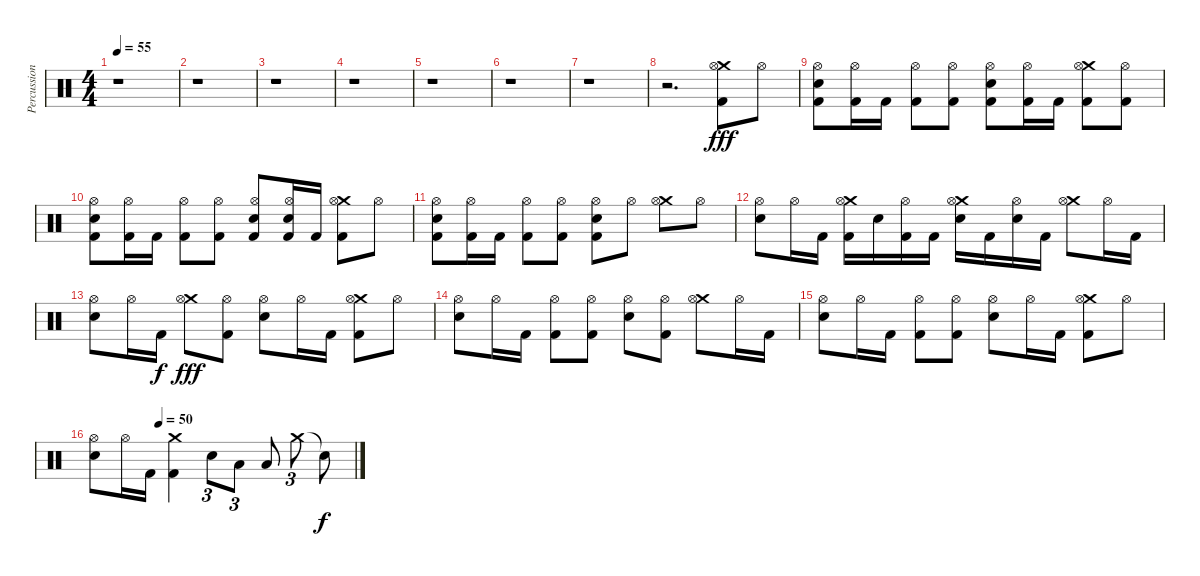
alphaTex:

\track ("Percussion" "Percussion") {instrument percussion}
\staff {score}
\articulation defaults
\ts (4 4)
\tempo 55
\clef neutral
\ks c
r.1{dy fff} |
r.1 |
r.1 |
r.1 |
r.1 |
r.1 |
r.1 |
r.2{d} ("Crash medium (hit)" "Kick (hit) 2" "Hi-Hat (open)").8 "Hi-Hat (open)".8 |
("Snare (hit) 2" "Hi-Hat (open)" "Kick (hit) 2").8 ("Hi-Hat (open)" "Kick (hit) 2").16 "Kick (hit) 2".16 ("Hi-Hat (open)" "Kick (hit) 2").8 ("Hi-Hat (open)" "Kick (hit) 2").8 ("Snare (hit) 2" "Hi-Hat (open)" "Kick (hit) 2").8 ("Hi-Hat (open)" "Kick (hit) 2").16 "Kick (hit) 2".16 ("Crash medium (hit)" "Hi-Hat (open)" "Kick (hit) 2").8 ("Hi-Hat (open)" "Kick (hit) 2").8 |
("Snare (hit) 2" "Hi-Hat (open)" "Kick (hit) 2").8 ("Hi-Hat (open)" "Kick (hit) 2").16 "Kick (hit) 2".16 ("Hi-Hat (open)" "Kick (hit) 2").8 ("Hi-Hat (open)" "Kick (hit) 2").8 ("Snare (hit) 2" "Hi-Hat (open)" "Kick (hit) 2").8 ("Snare (hit) 2" "Hi-Hat (open)" "Kick (hit) 2").16 "Kick (hit) 2".16 ("Crash medium (hit)" "Kick (hit) 2" "Hi-Hat (open)").8 "Hi-Hat (open)".8 |
("Snare (hit) 2" "Kick (hit) 2" "Hi-Hat (open)").8 ("Kick (hit) 2" "Hi-Hat (open)").16 "Kick (hit) 2".16 ("Kick (hit) 2" "Hi-Hat (open)").8 ("Kick (hit) 2" "Hi-Hat (open)").8 ("Snare (hit) 2" "Kick (hit) 2" "Hi-Hat (open)").8 "Hi-Hat (open)".8 ("Crash medium (hit)" "Hi-Hat (open)").8 "Hi-Hat (open)".8 |
("Snare (hit) 2" "Hi-Hat (open)").8 "Hi-Hat (open)".16 "Kick (hit) 2".16 ("Crash medium (hit)" "Kick (hit) 2" "Hi-Hat (open)").16 "Snare (hit) 2".16 ("Kick (hit) 2" "Hi-Hat (open)").16 "Kick (hit) 2".16 ("Crash medium (hit)" "Snare (hit) 2" "Hi-Hat (open)").16 "Kick (hit) 2".16 ("Snare (hit) 2" "Hi-Hat (open)").16 "Kick (hit) 2".16 ("Crash medium (hit)" "Hi-Hat (open)").8 "Hi-Hat (open)".16 "Kick (hit) 2".16 |
("Snare (hit) 2" "Hi-Hat (open)").8 "Hi-Hat (open)".16 "Kick (hit) 2".16{dy f} ("Crash medium (hit)" "Hi-Hat (open)").8{dy fff} ("Kick (hit) 2" "Hi-Hat (open)").8 ("Snare (hit) 2" "Hi-Hat (open)").8 "Hi-Hat (open)".16 "Kick (hit) 2".16 ("Crash medium (hit)" "Kick (hit) 2" "Hi-Hat (open)").8 "Hi-Hat (open)".8 |
("Snare (hit) 2" "Hi-Hat (open)").8 "Hi-Hat (open)".16 "Kick (hit) 2".16 ("Kick (hit) 2" "Hi-Hat (open)").8 ("Kick (hit) 2" "Hi-Hat (open)").8 ("Snare (hit) 2" "Hi-Hat (open)").8 ("Kick (hit) 2" "Hi-Hat (open)").8 ("Crash medium (hit)" "Hi-Hat (open)").8 "Hi-Hat (open)".16 "Kick (hit) 2".16 |
("Snare (hit) 2" "Hi-Hat (open)").8 "Hi-Hat (open)".16 "Kick (hit) 2".16 ("Kick (hit) 2" "Hi-Hat (open)").8 ("Kick (hit) 2" "Hi-Hat (open)").8 ("Snare (hit) 2" "Hi-Hat (open)").8 "Hi-Hat (open)".16 "Kick (hit) 2".16 ("Crash medium (hit)" "Kick (hit) 2" "Hi-Hat (open)").8 "Hi-Hat (open)".8 |
\tempo (50 0.25)
("Snare (hit) 2" "Hi-Hat (open)").8 "Hi-Hat (open)".16 "Kick (hit) 2".16 ("Crash medium (hit)" "Kick (hit) 2").4 "Snare (hit) 2".8{tu (3 2)} "Low Tom (hit)".8{tu (3 2)} "Low Tom (hit)".8 "Crash medium (hit)".8{tu (3 2)} "Snare (hit)"{t}.8{dy f}
